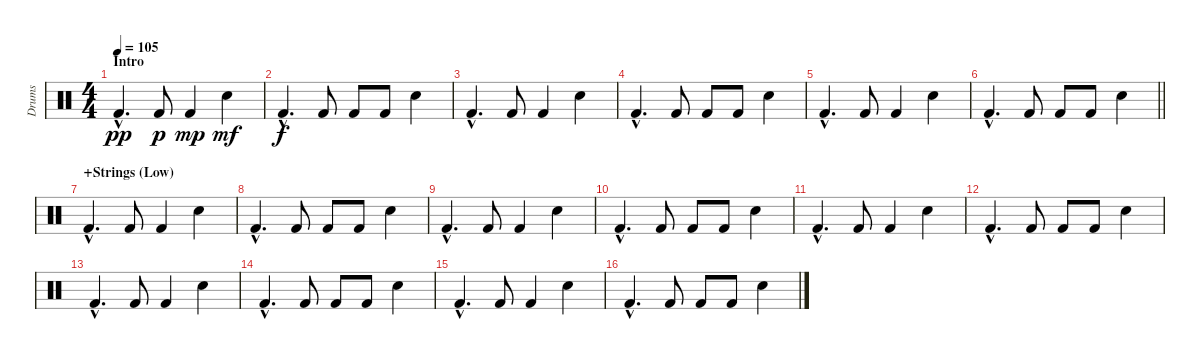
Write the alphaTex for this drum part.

\track ("Drums" "Drums") {instrument percussion}
\staff {score}
\articulation defaults
\ts (4 4)
\section ("" "Intro")
\tempo 105
\clef neutral
\ks c "Kick (hit) 2"{hac}.4{d dy pp} "Kick (hit) 2".8{dy p} "Kick (hit) 2".4{dy mp} "Snare (hit) 2".4{dy mf}
|
"Kick (hit) 2"{hac}.4{d dy f} "Kick (hit) 2".8 "Kick (hit) 2".8 "Kick (hit) 2".8 "Snare (hit) 2".4 |
"Kick (hit) 2"{hac}.4{d} "Kick (hit) 2".8 "Kick (hit) 2".4 "Snare (hit) 2".4 |
"Kick (hit) 2"{hac}.4{d} "Kick (hit) 2".8 "Kick (hit) 2".8 "Kick (hit) 2".8 "Snare (hit) 2".4 |
"Kick (hit) 2"{hac}.4{d} "Kick (hit) 2".8 "Kick (hit) 2".4 "Snare (hit) 2".4 |
\barLineRight lightlight "Kick (hit) 2"{hac}.4{d} "Kick (hit) 2".8 "Kick (hit) 2".8 "Kick (hit) 2".8 "Snare (hit) 2".4
|
\section ("" "+Strings (Low)")
"Kick (hit) 2"{hac}.4{d} "Kick (hit) 2".8 "Kick (hit) 2".4 "Snare (hit) 2".4 |
"Kick (hit) 2"{hac}.4{d} "Kick (hit) 2".8 "Kick (hit) 2".8 "Kick (hit) 2".8 "Snare (hit) 2".4 |
"Kick (hit) 2"{hac}.4{d} "Kick (hit) 2".8 "Kick (hit) 2".4 "Snare (hit) 2".4 |
"Kick (hit) 2"{hac}.4{d} "Kick (hit) 2".8 "Kick (hit) 2".8 "Kick (hit) 2".8 "Snare (hit) 2".4 |
"Kick (hit) 2"{hac}.4{d} "Kick (hit) 2".8 "Kick (hit) 2".4 "Snare (hit) 2".4 |
"Kick (hit) 2"{hac}.4{d} "Kick (hit) 2".8 "Kick (hit) 2".8 "Kick (hit) 2".8 "Snare (hit) 2".4 |
"Kick (hit) 2"{hac}.4{d} "Kick (hit) 2".8 "Kick (hit) 2".4 "Snare (hit) 2".4 |
"Kick (hit) 2"{hac}.4{d} "Kick (hit) 2".8 "Kick (hit) 2".8 "Kick (hit) 2".8 "Snare (hit) 2".4 |
"Kick (hit) 2"{hac}.4{d} "Kick (hit) 2".8 "Kick (hit) 2".4 "Snare (hit) 2".4 |
"Kick (hit) 2"{hac}.4{d} "Kick (hit) 2".8 "Kick (hit) 2".8 "Kick (hit) 2".8 "Snare (hit) 2".4
